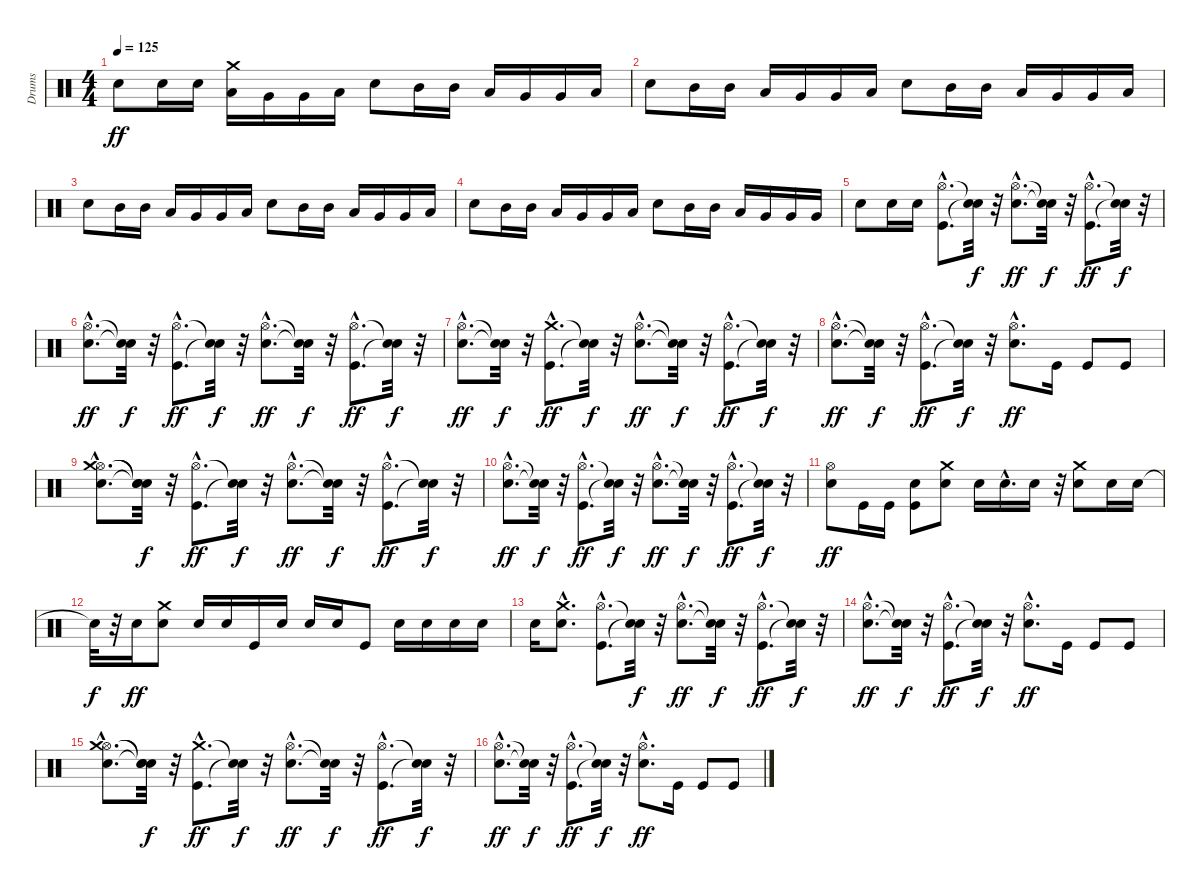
\track ("Drums" "Drums") {instrument percussion}
\staff {score}
\articulation defaults
\ts (4 4)
\tempo 125
\clef neutral
\ks c "Electric Snare (hit)".8{dy ff} "Electric Snare (hit)".16 "Electric Snare (hit)".16
("Low Tom (hit)" "Crash medium (hit)").16 "Very Low Tom (hit)".16 "Very Low Tom (hit)".16 "Low Floor Tom (hit)".16 "Electric Snare (hit)".8 "Mid Tom (hit)".16 "Mid Tom (hit)".16 "Low Tom (hit)".16 "Very Low Tom (hit)".16 "Very Low Tom (hit)".16 "Low Floor Tom (hit)".16 |
"Electric Snare (hit)".8 "Mid Tom (hit)".16 "Mid Tom (hit)".16 "Low Tom (hit)".16 "Very Low Tom (hit)".16 "Very Low Tom (hit)".16 "Low Floor Tom (hit)".16 "Electric Snare (hit)".8 "Mid Tom (hit)".16 "Mid Tom (hit)".16 "Low Tom (hit)".16 "Very Low Tom (hit)".16 "Very Low Tom (hit)".16 "Low Floor Tom (hit)".16 |
"Electric Snare (hit)".8 "Mid Tom (hit)".16 "Mid Tom (hit)".16 "Low Tom (hit)".16 "Very Low Tom (hit)".16 "Very Low Tom (hit)".16 "Low Floor Tom (hit)".16 "Electric Snare (hit)".8 "Mid Tom (hit)".16 "Mid Tom (hit)".16 "Low Tom (hit)".16 "Very Low Tom (hit)".16 "Very Low Tom (hit)".16 "Low Floor Tom (hit)".16 |
"Electric Snare (hit)".8 "Mid Tom (hit)".16 "Mid Tom (hit)".16 "Low Tom (hit)".16 "Very Low Tom (hit)".16 "Very Low Tom (hit)".16 "Low Floor Tom (hit)".16 "Electric Snare (hit)".8 "Mid Tom (hit)".16 "Mid Tom (hit)".16 "Low Tom (hit)".16 "Very Low Tom (hit)".16 "Very Low Tom (hit)".16 "Very Low Tom (hit)".16 |
"Electric Snare (hit)".8 "Electric Snare (hit)".16 "Electric Snare (hit)".16 ("Kick (hit)"{hac} "Hi-Hat (open)"{hac}).8{d} ("Snare (hit)"{t} "Snare (hit)"{t}).32{dy f} r.32 ("Electric Snare (hit)"{hac} "Hi-Hat (open)"{hac}).8{d dy ff} ("Snare (hit)"{t} "Snare (hit)"{t}).32{dy f} r.32 ("Kick (hit)"{hac} "Hi-Hat (open)"{hac}).8{d dy ff} ("Snare (hit)"{t} "Snare (hit)"{t}).32{dy f} r.32 |
("Electric Snare (hit)"{hac} "Hi-Hat (open)"{hac}).8{d dy ff} ("Snare (hit)"{t} "Snare (hit)"{t}).32{dy f} r.32 ("Kick (hit)"{hac} "Hi-Hat (open)"{hac}).8{d dy ff} ("Snare (hit)"{t} "Snare (hit)"{t}).32{dy f} r.32 ("Electric Snare (hit)"{hac} "Hi-Hat (open)"{hac}).8{d dy ff} ("Snare (hit)"{t} "Snare (hit)"{t}).32{dy f} r.32 ("Kick (hit)"{hac} "Hi-Hat (open)"{hac}).8{d dy ff} ("Snare (hit)"{t} "Snare (hit)"{t}).32{dy f} r.32 |
("Electric Snare (hit)"{hac} "Hi-Hat (open)"{hac}).8{d dy ff} ("Snare (hit)"{t} "Snare (hit)"{t}).32{dy f} r.32 ("Kick (hit)"{hac} "Crash medium (hit)"{hac}).8{d dy ff} ("Snare (hit)"{t} "Snare (hit)"{t}).32{dy f} r.32 ("Electric Snare (hit)"{hac} "Hi-Hat (open)"{hac}).8{d dy ff} ("Snare (hit)"{t} "Snare (hit)"{t}).32{dy f} r.32 ("Kick (hit)"{hac} "Hi-Hat (open)"{hac}).8{d dy ff} ("Snare (hit)"{t} "Snare (hit)"{t}).32{dy f} r.32 |
("Electric Snare (hit)"{hac} "Hi-Hat (open)"{hac}).8{d dy ff} ("Snare (hit)"{t} "Snare (hit)"{t}).32{dy f} r.32 ("Kick (hit)"{hac} "Hi-Hat (open)"{hac}).8{d dy ff} ("Snare (hit)"{t} "Snare (hit)"{t}).32{dy f} r.32 ("Electric Snare (hit)"{hac} "Hi-Hat (open)"{hac}).8{d dy ff} "Kick (hit)".16 "Kick (hit)".8 "Kick (hit)".8 |
("Electric Snare (hit)"{hac} "Hi-Hat (open)"{hac} "Crash medium (hit)"{hac}).8{d} ("Snare (hit)"{t} "Snare (hit)"{t} "Snare (hit)"{t}).32{dy f} r.32 ("Kick (hit)"{hac} "Hi-Hat (open)"{hac}).8{d dy ff} ("Snare (hit)"{t} "Snare (hit)"{t}).32{dy f} r.32 ("Electric Snare (hit)"{hac} "Hi-Hat (open)"{hac}).8{d dy ff} ("Snare (hit)"{t} "Snare (hit)"{t}).32{dy f} r.32 ("Kick (hit)"{hac} "Hi-Hat (open)"{hac}).8{d dy ff} ("Snare (hit)"{t} "Snare (hit)"{t}).32{dy f} r.32 |
("Electric Snare (hit)"{hac} "Hi-Hat (open)"{hac}).8{d dy ff} ("Snare (hit)"{t} "Snare (hit)"{t}).32{dy f} r.32 ("Kick (hit)"{hac} "Hi-Hat (open)"{hac}).8{d dy ff} ("Snare (hit)"{t} "Snare (hit)"{t}).32{dy f} r.32 ("Electric Snare (hit)"{hac} "Hi-Hat (open)"{hac}).8{d dy ff} ("Snare (hit)"{t} "Snare (hit)"{t}).32{dy f} r.32 ("Kick (hit)"{hac} "Hi-Hat (open)"{hac}).8{d dy ff} ("Snare (hit)"{t} "Snare (hit)"{t}).32{dy f} r.32 |
("Electric Snare (hit)" "Hi-Hat (open)").8{dy ff} "Kick (hit)".16 "Kick (hit)".16 ("Kick (hit)" "Electric Snare (hit)").8 ("Electric Snare (hit)" "Crash medium (hit)").8 "Electric Snare (hit)".16 "Electric Snare (hit)"{hac}.16{d} "Electric Snare (hit)".16 r.32 ("Electric Snare (hit)" "Crash medium (hit)").8 "Electric Snare (hit)".16 "Electric Snare (hit)".16 |
"Snare (hit)"{t}.32{dy f} r.32 "Electric Snare (hit)".16{dy ff} ("Electric Snare (hit)" "Crash medium (hit)").8 "Electric Snare (hit)".16 "Electric Snare (hit)".16 "Kick (hit)".16 "Electric Snare (hit)".16 "Electric Snare (hit)".16 "Electric Snare (hit)".16 "Kick (hit)".8 "Electric Snare (hit)".16 "Electric Snare (hit)".16 "Electric Snare (hit)".16 "Electric Snare (hit)".16 |
"Electric Snare (hit)".16 ("Electric Snare (hit)"{hac} "Crash medium (hit)"{hac}).8{d} ("Kick (hit)"{hac} "Hi-Hat (open)"{hac}).8{d} ("Snare (hit)"{t} "Snare (hit)"{t}).32{dy f} r.32 ("Electric Snare (hit)"{hac} "Hi-Hat (open)"{hac}).8{d dy ff} ("Snare (hit)"{t} "Snare (hit)"{t}).32{dy f} r.32 ("Kick (hit)"{hac} "Hi-Hat (open)"{hac}).8{d dy ff} ("Snare (hit)"{t} "Snare (hit)"{t}).32{dy f} r.32 |
("Electric Snare (hit)"{hac} "Hi-Hat (open)"{hac}).8{d dy ff} ("Snare (hit)"{t} "Snare (hit)"{t}).32{dy f} r.32 ("Kick (hit)"{hac} "Hi-Hat (open)"{hac}).8{d dy ff} ("Snare (hit)"{t} "Snare (hit)"{t}).32{dy f} r.32 ("Electric Snare (hit)"{hac} "Hi-Hat (open)"{hac}).8{d dy ff} "Kick (hit)".16 "Kick (hit)".8 "Kick (hit)".8 |
("Electric Snare (hit)"{hac} "Hi-Hat (open)"{hac} "Crash medium (hit)"{hac}).8{d} ("Snare (hit)"{t} "Snare (hit)"{t} "Snare (hit)"{t}).32{dy f} r.32 ("Kick (hit)"{hac} "Crash medium (hit)"{hac}).8{d dy ff} ("Snare (hit)"{t} "Snare (hit)"{t}).32{dy f} r.32 ("Electric Snare (hit)"{hac} "Hi-Hat (open)"{hac}).8{d dy ff} ("Snare (hit)"{t} "Snare (hit)"{t}).32{dy f} r.32 ("Kick (hit)"{hac} "Hi-Hat (open)"{hac}).8{d dy ff} ("Snare (hit)"{t} "Snare (hit)"{t}).32{dy f} r.32 |
("Electric Snare (hit)"{hac} "Hi-Hat (open)"{hac}).8{d dy ff} ("Snare (hit)"{t} "Snare (hit)"{t}).32{dy f} r.32 ("Kick (hit)"{hac} "Hi-Hat (open)"{hac}).8{d dy ff} ("Snare (hit)"{t} "Snare (hit)"{t}).32{dy f} r.32 ("Electric Snare (hit)"{hac} "Hi-Hat (open)"{hac}).8{d dy ff} "Kick (hit)".16 "Kick (hit)".8 "Kick (hit)".8
